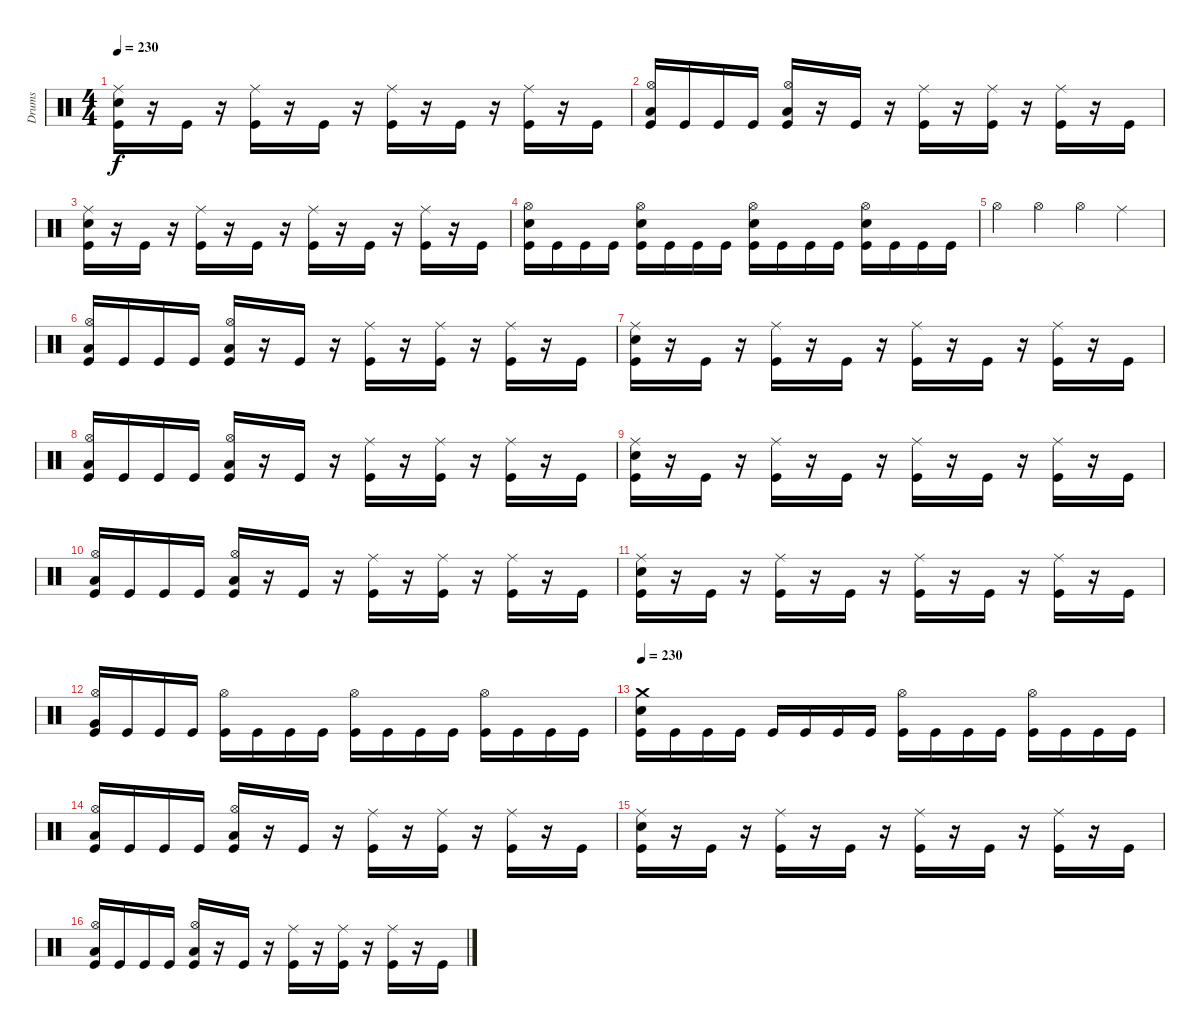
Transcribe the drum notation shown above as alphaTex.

\track ("Drums" "Drums") {instrument percussion}
\staff {score}
\articulation defaults
\ts (4 4)
\tempo 230
\clef neutral
\ks c
("Ride (middle)" "Electric Snare (hit)" "Kick (hit)").16{dy f} r.16 "Kick (hit)".16 r.16 ("Ride (middle)" "Kick (hit)").16 r.16 "Kick (hit)".16 r.16 ("Ride (middle)" "Kick (hit)").16 r.16 "Kick (hit)".16 r.16 ("Ride (middle)" "Kick (hit)").16 r.16 "Kick (hit)".16 |
("Hi-Hat (open)" "Low Floor Tom (hit)" "Kick (hit)").16 "Kick (hit)".16 "Kick (hit)".16 "Kick (hit)".16 ("Hi-Hat (open)" "Low Floor Tom (hit)" "Kick (hit)").16 r.16 "Kick (hit)".16 r.16 ("Ride (middle)" "Kick (hit)").16 r.16 ("Ride (middle)" "Kick (hit)").16 r.16 ("Ride (middle)" "Kick (hit)").16 r.16 "Kick (hit)".16 |
("Ride (middle)" "Electric Snare (hit)" "Kick (hit)").16 r.16 "Kick (hit)".16 r.16 ("Ride (middle)" "Kick (hit)").16 r.16 "Kick (hit)".16 r.16 ("Ride (middle)" "Kick (hit)").16 r.16 "Kick (hit)".16 r.16 ("Ride (middle)" "Kick (hit)").16 r.16 "Kick (hit)".16 |
("Hi-Hat (open)" "Electric Snare (hit)" "Kick (hit)").16 "Kick (hit)".16 "Kick (hit)".16 "Kick (hit)".16 ("Hi-Hat (open)" "Electric Snare (hit)" "Kick (hit)").16 "Kick (hit)".16 "Kick (hit)".16 "Kick (hit)".16 ("Hi-Hat (open)" "Electric Snare (hit)" "Kick (hit)").16 "Kick (hit)".16 "Kick (hit)".16 "Kick (hit)".16 ("Hi-Hat (open)" "Electric Snare (hit)" "Kick (hit)").16 "Kick (hit)".16 "Kick (hit)".16 "Kick (hit)".16 |
"Hi-Hat (open)".4 "Hi-Hat (open)".4 "Hi-Hat (open)".4 "Ride (middle)".4 |
("Hi-Hat (open)" "Low Floor Tom (hit)" "Kick (hit)").16 "Kick (hit)".16 "Kick (hit)".16 "Kick (hit)".16 ("Hi-Hat (open)" "Low Floor Tom (hit)" "Kick (hit)").16 r.16 "Kick (hit)".16 r.16 ("Ride (middle)" "Kick (hit)").16 r.16 ("Ride (middle)" "Kick (hit)").16 r.16 ("Ride (middle)" "Kick (hit)").16 r.16 "Kick (hit)".16 |
("Ride (middle)" "Electric Snare (hit)" "Kick (hit)").16 r.16 "Kick (hit)".16 r.16 ("Ride (middle)" "Kick (hit)").16 r.16 "Kick (hit)".16 r.16 ("Ride (middle)" "Kick (hit)").16 r.16 "Kick (hit)".16 r.16 ("Ride (middle)" "Kick (hit)").16 r.16 "Kick (hit)".16 |
("Hi-Hat (open)" "Low Floor Tom (hit)" "Kick (hit)").16 "Kick (hit)".16 "Kick (hit)".16 "Kick (hit)".16 ("Hi-Hat (open)" "Low Floor Tom (hit)" "Kick (hit)").16 r.16 "Kick (hit)".16 r.16 ("Ride (middle)" "Kick (hit)").16 r.16 ("Ride (middle)" "Kick (hit)").16 r.16 ("Ride (middle)" "Kick (hit)").16 r.16 "Kick (hit)".16 |
("Ride (middle)" "Electric Snare (hit)" "Kick (hit)").16 r.16 "Kick (hit)".16 r.16 ("Ride (middle)" "Kick (hit)").16 r.16 "Kick (hit)".16 r.16 ("Ride (middle)" "Kick (hit)").16 r.16 "Kick (hit)".16 r.16 ("Ride (middle)" "Kick (hit)").16 r.16 "Kick (hit)".16 |
("Hi-Hat (open)" "Low Floor Tom (hit)" "Kick (hit)").16 "Kick (hit)".16 "Kick (hit)".16 "Kick (hit)".16 ("Hi-Hat (open)" "Low Floor Tom (hit)" "Kick (hit)").16 r.16 "Kick (hit)".16 r.16 ("Ride (middle)" "Kick (hit)").16 r.16 ("Ride (middle)" "Kick (hit)").16 r.16 ("Ride (middle)" "Kick (hit)").16 r.16 "Kick (hit)".16 |
("Ride (middle)" "Electric Snare (hit)" "Kick (hit)").16 r.16 "Kick (hit)".16 r.16 ("Ride (middle)" "Kick (hit)").16 r.16 "Kick (hit)".16 r.16 ("Ride (middle)" "Kick (hit)").16 r.16 "Kick (hit)".16 r.16 ("Ride (middle)" "Kick (hit)").16 r.16 "Kick (hit)".16 |
("Hi-Hat (open)" "Very Low Tom (hit)" "Kick (hit)").16 "Kick (hit)".16 "Kick (hit)".16 "Kick (hit)".16 ("Hi-Hat (open)" "Kick (hit)").16 "Kick (hit)".16 "Kick (hit)".16 "Kick (hit)".16 ("Hi-Hat (open)" "Kick (hit)").16 "Kick (hit)".16 "Kick (hit)".16 "Kick (hit)".16 ("Hi-Hat (open)" "Kick (hit)").16 "Kick (hit)".16 "Kick (hit)".16 "Kick (hit)".16 |
\tempo 230
("Crash medium (hit)" "Electric Snare (hit)" "Kick (hit)").16 "Kick (hit)".16 "Kick (hit)".16 "Kick (hit)".16 "Kick (hit)".16 "Kick (hit)".16 "Kick (hit)".16 "Kick (hit)".16 ("Hi-Hat (open)" "Kick (hit)").16 "Kick (hit)".16 "Kick (hit)".16 "Kick (hit)".16 ("Hi-Hat (open)" "Kick (hit)").16 "Kick (hit)".16 "Kick (hit)".16 "Kick (hit)".16 |
("Hi-Hat (open)" "Low Floor Tom (hit)" "Kick (hit)").16 "Kick (hit)".16 "Kick (hit)".16 "Kick (hit)".16 ("Hi-Hat (open)" "Low Floor Tom (hit)" "Kick (hit)").16 r.16 "Kick (hit)".16 r.16 ("Ride (middle)" "Kick (hit)").16 r.16 ("Ride (middle)" "Kick (hit)").16 r.16 ("Ride (middle)" "Kick (hit)").16 r.16 "Kick (hit)".16 |
("Ride (middle)" "Electric Snare (hit)" "Kick (hit)").16 r.16 "Kick (hit)".16 r.16 ("Ride (middle)" "Kick (hit)").16 r.16 "Kick (hit)".16 r.16 ("Ride (middle)" "Kick (hit)").16 r.16 "Kick (hit)".16 r.16 ("Ride (middle)" "Kick (hit)").16 r.16 "Kick (hit)".16 |
("Hi-Hat (open)" "Low Floor Tom (hit)" "Kick (hit)").16 "Kick (hit)".16 "Kick (hit)".16 "Kick (hit)".16 ("Hi-Hat (open)" "Low Floor Tom (hit)" "Kick (hit)").16 r.16 "Kick (hit)".16 r.16 ("Ride (middle)" "Kick (hit)").16 r.16 ("Ride (middle)" "Kick (hit)").16 r.16 ("Ride (middle)" "Kick (hit)").16 r.16 "Kick (hit)".16
